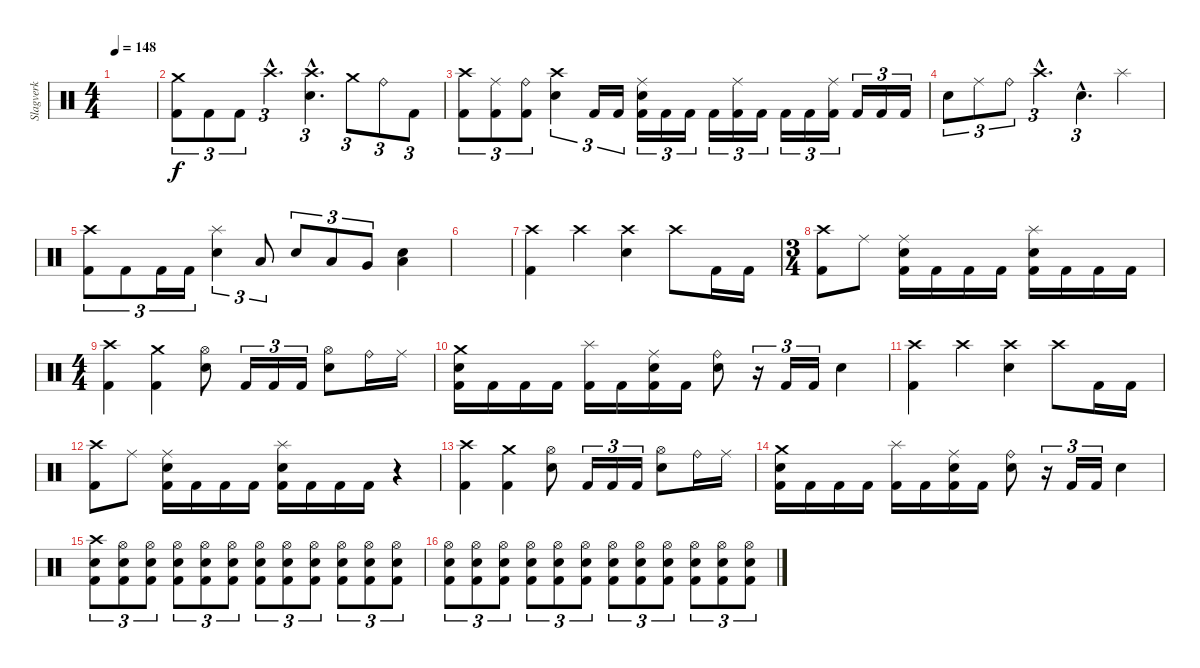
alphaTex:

\track ("Slagverk" "Slagverk") {instrument percussion}
\staff {score}
\articulation defaults
\ts (4 4)
\tempo 148
\clef neutral
\ks c
|
("Crash medium (hit)" "Kick (hit) 2").8{tu (3 2)} "Kick (hit) 2".8{tu (3 2)} "Kick (hit) 2".8{tu (3 2)} "Crash high (hit)"{hac}.4{d tu (3 2)} ("Crash high (hit)"{hac} "Snare (hit) 2"{hac}).4{d tu (3 2)} "Crash medium (hit)".8{tu (3 2)} "Ride (bell)".8{tu (3 2)} "Kick (hit) 2".8{tu (3 2)} |
("Crash high (hit)" "Kick (hit) 2").8{tu (3 2)} ("Ride (middle)" "Kick (hit) 2").8{tu (3 2)} ("Ride (bell)" "Kick (hit) 2").8{tu (3 2)} ("Crash high (hit)" "Snare (hit) 2").4{tu (3 2)} "Kick (hit) 2".16{tu (3 2)} "Kick (hit) 2".16{tu (3 2)} ("Ride (middle)" "Snare (hit) 2" "Kick (hit) 2").16{tu (3 2)} "Kick (hit) 2".16{tu (3 2)} "Kick (hit) 2".16{tu (3 2)} "Kick (hit) 2".16{tu (3 2)} ("Ride (middle)" "Kick (hit) 2").16{tu (3 2)} "Kick (hit) 2".16{tu (3 2)} "Kick (hit) 2".16{tu (3 2)} "Kick (hit) 2".16{tu (3 2)} ("Ride (middle)" "Kick (hit) 2").16{tu (3 2)} "Kick (hit) 2".16{tu (3 2)} "Kick (hit) 2".16{tu (3 2)} "Kick (hit) 2".16{tu (3 2)} |
"Snare (hit) 2".8{tu (3 2)} "Ride (middle)".8{tu (3 2)} "Ride (bell)".8{tu (3 2)} "Crash high (hit)"{hac}.4{d tu (3 2)} "Snare (hit) 2"{hac}.4{d tu (3 2)} "Splash (hit)".4 |
("Crash high (hit)" "Kick (hit) 2").8{tu (3 2)} "Kick (hit) 2".8{tu (3 2)} "Kick (hit) 2".16{tu (3 2)} "Kick (hit) 2".16{tu (3 2)} ("Splash (hit)" "Snare (hit) 2").4{tu (3 2)} "Low Tom (hit)".8{tu (3 2)} "Snare (hit) 2".8{tu (3 2)} "Low Tom (hit)".8{tu (3 2)} "Very Low Tom (hit)".8{tu (3 2)} ("Snare (hit) 2" "Low Floor Tom (hit)").4 |
|
("Crash high (hit)" "Kick (hit) 2").4 "Crash high (hit)".4 ("Crash high (hit)" "Snare (hit) 2").4 "Crash high (hit)".8 "Kick (hit) 2".16 "Kick (hit) 2".16 |
\ts (3 4)
("Crash high (hit)" "Kick (hit) 2").8 "Ride (middle)".8 ("Ride (middle)" "Snare (hit) 2" "Kick (hit) 2").16 "Kick (hit) 2".16 "Kick (hit) 2".16 "Kick (hit) 2".16 ("Splash (hit)" "Snare (hit) 2" "Kick (hit) 2").16 "Kick (hit) 2".16 "Kick (hit) 2".16 "Kick (hit) 2".16 |
\ts (4 4)
("Crash high (hit)" "Kick (hit) 2").4 ("Crash medium (hit)" "Kick (hit) 2").4 ("Hi-Hat (open)" "Snare (hit) 2").8 "Kick (hit) 2".16{tu (3 2)} "Kick (hit) 2".16{tu (3 2)} "Kick (hit) 2".16{tu (3 2)} ("Hi-Hat (open)" "Snare (hit) 2").8 "Ride (bell)".16 "Ride (middle)".16 |
("Crash medium (hit)" "Snare (hit) 2" "Kick (hit) 2").16 "Kick (hit) 2".16 "Kick (hit) 2".16 "Kick (hit) 2".16 ("Splash (hit)" "Kick (hit) 2").16 "Kick (hit) 2".16 ("Ride (middle)" "Snare (hit) 2" "Kick (hit) 2").16 "Kick (hit) 2".16 ("Ride (bell)" "Snare (hit) 2").8 r.16{tu (3 2)} "Kick (hit) 2".16{tu (3 2)} "Kick (hit) 2".16{tu (3 2)} "Snare (hit) 2".4 |
("Crash high (hit)" "Kick (hit) 2").4 "Crash high (hit)".4 ("Crash high (hit)" "Snare (hit) 2").4 "Crash high (hit)".8 "Kick (hit) 2".16 "Kick (hit) 2".16 |
("Crash high (hit)" "Kick (hit) 2").8 "Ride (middle)".8 ("Ride (middle)" "Snare (hit) 2" "Kick (hit) 2").16 "Kick (hit) 2".16 "Kick (hit) 2".16 "Kick (hit) 2".16 ("Splash (hit)" "Snare (hit) 2" "Kick (hit) 2").16 "Kick (hit) 2".16 "Kick (hit) 2".16 "Kick (hit) 2".16 r.4 |
("Crash high (hit)" "Kick (hit) 2").4 ("Crash medium (hit)" "Kick (hit) 2").4 ("Hi-Hat (open)" "Snare (hit) 2").8 "Kick (hit) 2".16{tu (3 2)} "Kick (hit) 2".16{tu (3 2)} "Kick (hit) 2".16{tu (3 2)} ("Hi-Hat (open)" "Snare (hit) 2").8 "Ride (bell)".16 "Ride (middle)".16 |
("Crash medium (hit)" "Snare (hit) 2" "Kick (hit) 2").16 "Kick (hit) 2".16 "Kick (hit) 2".16 "Kick (hit) 2".16 ("Splash (hit)" "Kick (hit) 2").16 "Kick (hit) 2".16 ("Ride (middle)" "Snare (hit) 2" "Kick (hit) 2").16 "Kick (hit) 2".16 ("Ride (bell)" "Snare (hit) 2").8 r.16{tu (3 2)} "Kick (hit) 2".16{tu (3 2)} "Kick (hit) 2".16{tu (3 2)} "Snare (hit) 2".4 |
("Crash high (hit)" "Snare (hit) 2" "Kick (hit) 2").8{tu (3 2)} ("Hi-Hat (open)" "Snare (hit) 2" "Kick (hit) 2").8{tu (3 2)} ("Hi-Hat (open)" "Snare (hit) 2" "Kick (hit) 2").8{tu (3 2)} ("Hi-Hat (open)" "Snare (hit) 2" "Kick (hit) 2").8{tu (3 2)} ("Hi-Hat (open)" "Snare (hit) 2" "Kick (hit) 2").8{tu (3 2)} ("Hi-Hat (open)" "Snare (hit) 2" "Kick (hit) 2").8{tu (3 2)} ("Hi-Hat (open)" "Snare (hit) 2" "Kick (hit) 2").8{tu (3 2)} ("Hi-Hat (open)" "Snare (hit) 2" "Kick (hit) 2").8{tu (3 2)} ("Hi-Hat (open)" "Snare (hit) 2" "Kick (hit) 2").8{tu (3 2)} ("Hi-Hat (open)" "Snare (hit) 2" "Kick (hit) 2").8{tu (3 2)} ("Hi-Hat (open)" "Snare (hit) 2" "Kick (hit) 2").8{tu (3 2)} ("Hi-Hat (open)" "Snare (hit) 2" "Kick (hit) 2").8{tu (3 2)} |
("Hi-Hat (open)" "Snare (hit) 2" "Kick (hit) 2").8{tu (3 2)} ("Hi-Hat (open)" "Snare (hit) 2" "Kick (hit) 2").8{tu (3 2)} ("Hi-Hat (open)" "Snare (hit) 2" "Kick (hit) 2").8{tu (3 2)} ("Hi-Hat (open)" "Snare (hit) 2" "Kick (hit) 2").8{tu (3 2)} ("Hi-Hat (open)" "Snare (hit) 2" "Kick (hit) 2").8{tu (3 2)} ("Hi-Hat (open)" "Snare (hit) 2" "Kick (hit) 2").8{tu (3 2)} ("Hi-Hat (open)" "Snare (hit) 2" "Kick (hit) 2").8{tu (3 2)} ("Hi-Hat (open)" "Snare (hit) 2" "Kick (hit) 2").8{tu (3 2)} ("Hi-Hat (open)" "Snare (hit) 2" "Kick (hit) 2").8{tu (3 2)} ("Hi-Hat (open)" "Snare (hit) 2" "Kick (hit) 2").8{tu (3 2)} ("Hi-Hat (open)" "Snare (hit) 2" "Kick (hit) 2").8{tu (3 2)} ("Hi-Hat (open)" "Snare (hit) 2" "Kick (hit) 2").8{tu (3 2)}
